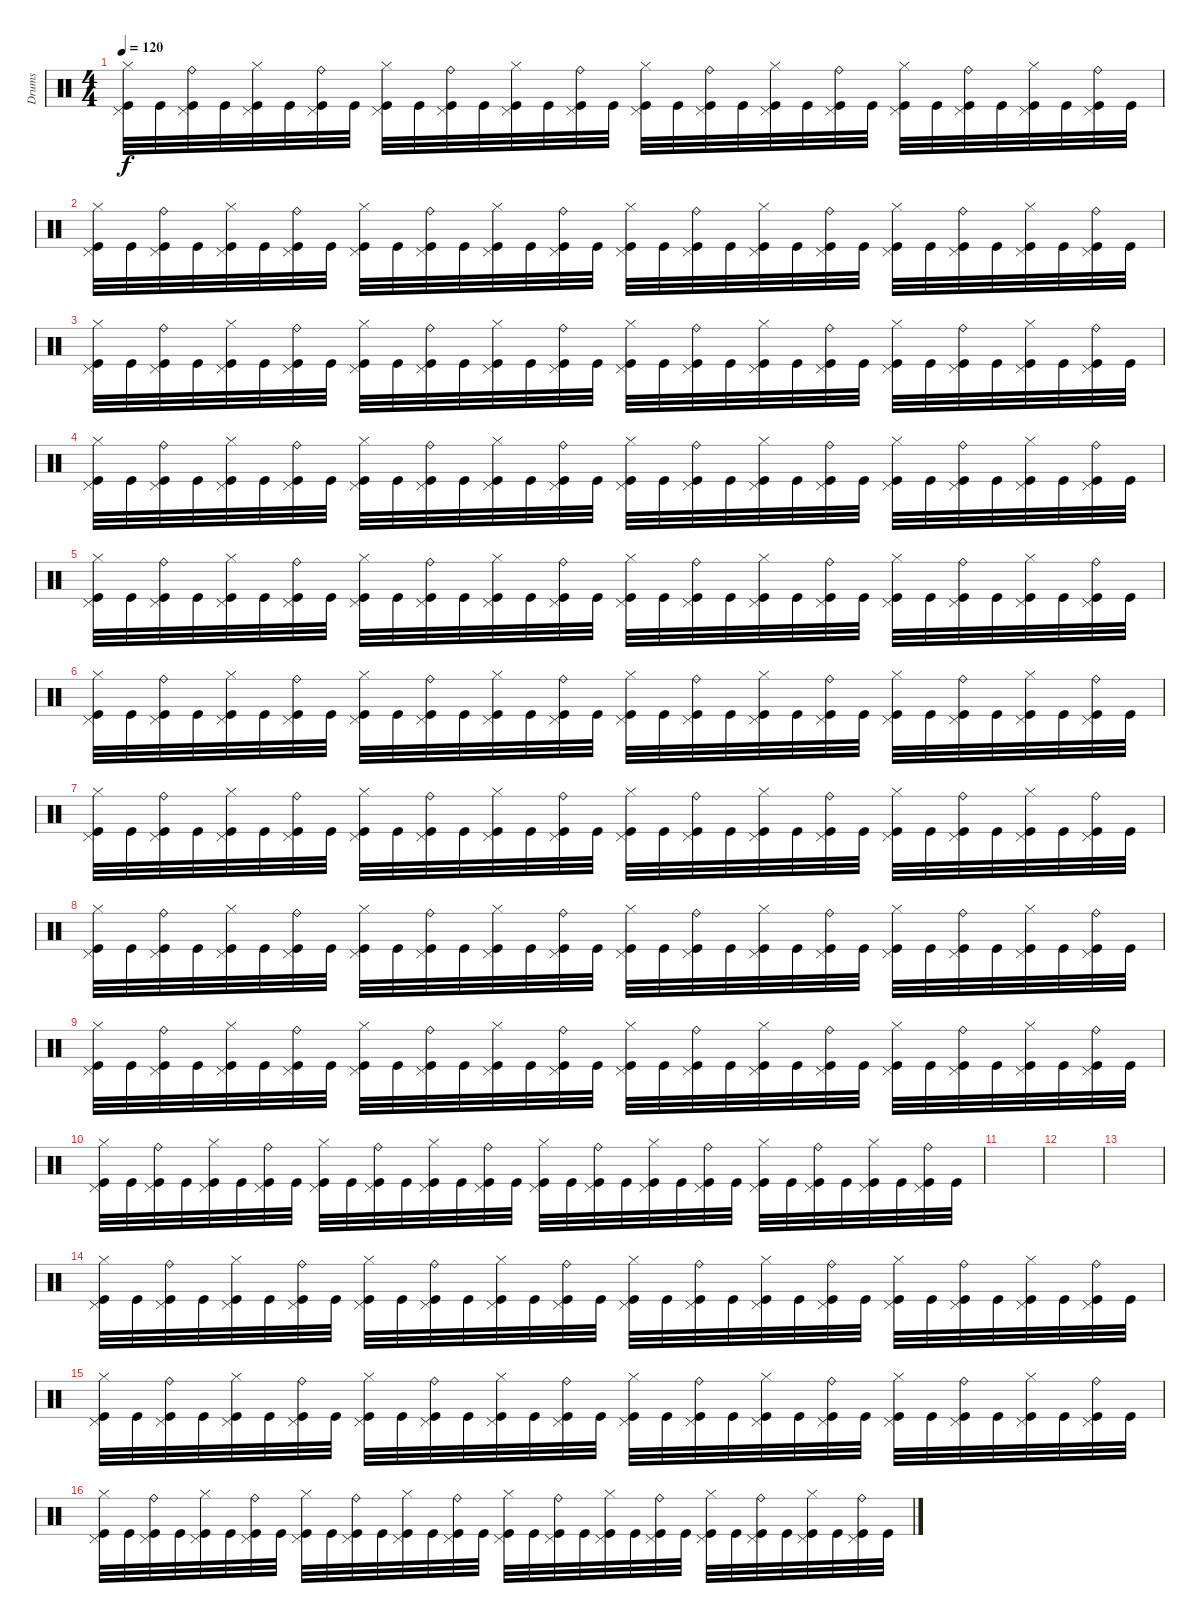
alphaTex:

\track ("Drums" "Drums") {instrument percussion}
\staff {score}
\articulation defaults
\ts (4 4)
\tempo 120
\clef neutral
\ks c
("Hi-Hat (closed)" "Pedal Hi-Hat (hit)" "Kick (hit)").32{dy f} "Kick (hit)".32 ("Ride (bell)" "Pedal Hi-Hat (hit)" "Kick (hit)").32 "Kick (hit)".32 ("Hi-Hat (closed)" "Pedal Hi-Hat (hit)" "Kick (hit)").32 "Kick (hit)".32 ("Ride (bell)" "Pedal Hi-Hat (hit)" "Kick (hit)").32 "Kick (hit)".32 ("Hi-Hat (closed)" "Pedal Hi-Hat (hit)" "Kick (hit)").32 "Kick (hit)".32 ("Ride (bell)" "Pedal Hi-Hat (hit)" "Kick (hit)").32 "Kick (hit)".32 ("Hi-Hat (closed)" "Pedal Hi-Hat (hit)" "Kick (hit)").32 "Kick (hit)".32 ("Ride (bell)" "Pedal Hi-Hat (hit)" "Kick (hit)").32 "Kick (hit)".32 ("Hi-Hat (closed)" "Pedal Hi-Hat (hit)" "Kick (hit)").32 "Kick (hit)".32 ("Ride (bell)" "Pedal Hi-Hat (hit)" "Kick (hit)").32 "Kick (hit)".32 ("Hi-Hat (closed)" "Pedal Hi-Hat (hit)" "Kick (hit)").32 "Kick (hit)".32 ("Ride (bell)" "Pedal Hi-Hat (hit)" "Kick (hit)").32 "Kick (hit)".32 ("Hi-Hat (closed)" "Pedal Hi-Hat (hit)" "Kick (hit)").32 "Kick (hit)".32 ("Ride (bell)" "Pedal Hi-Hat (hit)" "Kick (hit)").32 "Kick (hit)".32 ("Hi-Hat (closed)" "Pedal Hi-Hat (hit)" "Kick (hit)").32 "Kick (hit)".32 ("Ride (bell)" "Pedal Hi-Hat (hit)" "Kick (hit)").32 "Kick (hit)".32 |
("Hi-Hat (closed)" "Pedal Hi-Hat (hit)" "Kick (hit)").32 "Kick (hit)".32 ("Ride (bell)" "Pedal Hi-Hat (hit)" "Kick (hit)").32 "Kick (hit)".32 ("Hi-Hat (closed)" "Pedal Hi-Hat (hit)" "Kick (hit)").32 "Kick (hit)".32 ("Ride (bell)" "Pedal Hi-Hat (hit)" "Kick (hit)").32 "Kick (hit)".32 ("Hi-Hat (closed)" "Pedal Hi-Hat (hit)" "Kick (hit)").32 "Kick (hit)".32 ("Ride (bell)" "Pedal Hi-Hat (hit)" "Kick (hit)").32 "Kick (hit)".32 ("Hi-Hat (closed)" "Pedal Hi-Hat (hit)" "Kick (hit)").32 "Kick (hit)".32 ("Ride (bell)" "Pedal Hi-Hat (hit)" "Kick (hit)").32 "Kick (hit)".32 ("Hi-Hat (closed)" "Pedal Hi-Hat (hit)" "Kick (hit)").32 "Kick (hit)".32 ("Ride (bell)" "Pedal Hi-Hat (hit)" "Kick (hit)").32 "Kick (hit)".32 ("Hi-Hat (closed)" "Pedal Hi-Hat (hit)" "Kick (hit)").32 "Kick (hit)".32 ("Ride (bell)" "Pedal Hi-Hat (hit)" "Kick (hit)").32 "Kick (hit)".32 ("Hi-Hat (closed)" "Pedal Hi-Hat (hit)" "Kick (hit)").32 "Kick (hit)".32 ("Ride (bell)" "Pedal Hi-Hat (hit)" "Kick (hit)").32 "Kick (hit)".32 ("Hi-Hat (closed)" "Pedal Hi-Hat (hit)" "Kick (hit)").32 "Kick (hit)".32 ("Ride (bell)" "Pedal Hi-Hat (hit)" "Kick (hit)").32 "Kick (hit)".32 |
("Hi-Hat (closed)" "Pedal Hi-Hat (hit)" "Kick (hit)").32 "Kick (hit)".32 ("Ride (bell)" "Pedal Hi-Hat (hit)" "Kick (hit)").32 "Kick (hit)".32 ("Hi-Hat (closed)" "Pedal Hi-Hat (hit)" "Kick (hit)").32 "Kick (hit)".32 ("Ride (bell)" "Pedal Hi-Hat (hit)" "Kick (hit)").32 "Kick (hit)".32 ("Hi-Hat (closed)" "Pedal Hi-Hat (hit)" "Kick (hit)").32 "Kick (hit)".32 ("Ride (bell)" "Pedal Hi-Hat (hit)" "Kick (hit)").32 "Kick (hit)".32 ("Hi-Hat (closed)" "Pedal Hi-Hat (hit)" "Kick (hit)").32 "Kick (hit)".32 ("Ride (bell)" "Pedal Hi-Hat (hit)" "Kick (hit)").32 "Kick (hit)".32 ("Hi-Hat (closed)" "Pedal Hi-Hat (hit)" "Kick (hit)").32 "Kick (hit)".32 ("Ride (bell)" "Pedal Hi-Hat (hit)" "Kick (hit)").32 "Kick (hit)".32 ("Hi-Hat (closed)" "Pedal Hi-Hat (hit)" "Kick (hit)").32 "Kick (hit)".32 ("Ride (bell)" "Pedal Hi-Hat (hit)" "Kick (hit)").32 "Kick (hit)".32 ("Hi-Hat (closed)" "Pedal Hi-Hat (hit)" "Kick (hit)").32 "Kick (hit)".32 ("Ride (bell)" "Pedal Hi-Hat (hit)" "Kick (hit)").32 "Kick (hit)".32 ("Hi-Hat (closed)" "Pedal Hi-Hat (hit)" "Kick (hit)").32 "Kick (hit)".32 ("Ride (bell)" "Pedal Hi-Hat (hit)" "Kick (hit)").32 "Kick (hit)".32 |
("Hi-Hat (closed)" "Pedal Hi-Hat (hit)" "Kick (hit)").32 "Kick (hit)".32 ("Ride (bell)" "Pedal Hi-Hat (hit)" "Kick (hit)").32 "Kick (hit)".32 ("Hi-Hat (closed)" "Pedal Hi-Hat (hit)" "Kick (hit)").32 "Kick (hit)".32 ("Ride (bell)" "Pedal Hi-Hat (hit)" "Kick (hit)").32 "Kick (hit)".32 ("Hi-Hat (closed)" "Pedal Hi-Hat (hit)" "Kick (hit)").32 "Kick (hit)".32 ("Ride (bell)" "Pedal Hi-Hat (hit)" "Kick (hit)").32 "Kick (hit)".32 ("Hi-Hat (closed)" "Pedal Hi-Hat (hit)" "Kick (hit)").32 "Kick (hit)".32 ("Ride (bell)" "Pedal Hi-Hat (hit)" "Kick (hit)").32 "Kick (hit)".32 ("Hi-Hat (closed)" "Pedal Hi-Hat (hit)" "Kick (hit)").32 "Kick (hit)".32 ("Ride (bell)" "Pedal Hi-Hat (hit)" "Kick (hit)").32 "Kick (hit)".32 ("Hi-Hat (closed)" "Pedal Hi-Hat (hit)" "Kick (hit)").32 "Kick (hit)".32 ("Ride (bell)" "Pedal Hi-Hat (hit)" "Kick (hit)").32 "Kick (hit)".32 ("Hi-Hat (closed)" "Pedal Hi-Hat (hit)" "Kick (hit)").32 "Kick (hit)".32 ("Ride (bell)" "Pedal Hi-Hat (hit)" "Kick (hit)").32 "Kick (hit)".32 ("Hi-Hat (closed)" "Pedal Hi-Hat (hit)" "Kick (hit)").32 "Kick (hit)".32 ("Ride (bell)" "Pedal Hi-Hat (hit)" "Kick (hit)").32 "Kick (hit)".32 |
("Hi-Hat (closed)" "Pedal Hi-Hat (hit)" "Kick (hit)").32 "Kick (hit)".32 ("Ride (bell)" "Pedal Hi-Hat (hit)" "Kick (hit)").32 "Kick (hit)".32 ("Hi-Hat (closed)" "Pedal Hi-Hat (hit)" "Kick (hit)").32 "Kick (hit)".32 ("Ride (bell)" "Pedal Hi-Hat (hit)" "Kick (hit)").32 "Kick (hit)".32 ("Hi-Hat (closed)" "Pedal Hi-Hat (hit)" "Kick (hit)").32 "Kick (hit)".32 ("Ride (bell)" "Pedal Hi-Hat (hit)" "Kick (hit)").32 "Kick (hit)".32 ("Hi-Hat (closed)" "Pedal Hi-Hat (hit)" "Kick (hit)").32 "Kick (hit)".32 ("Ride (bell)" "Pedal Hi-Hat (hit)" "Kick (hit)").32 "Kick (hit)".32 ("Hi-Hat (closed)" "Pedal Hi-Hat (hit)" "Kick (hit)").32 "Kick (hit)".32 ("Ride (bell)" "Pedal Hi-Hat (hit)" "Kick (hit)").32 "Kick (hit)".32 ("Hi-Hat (closed)" "Pedal Hi-Hat (hit)" "Kick (hit)").32 "Kick (hit)".32 ("Ride (bell)" "Pedal Hi-Hat (hit)" "Kick (hit)").32 "Kick (hit)".32 ("Hi-Hat (closed)" "Pedal Hi-Hat (hit)" "Kick (hit)").32 "Kick (hit)".32 ("Ride (bell)" "Pedal Hi-Hat (hit)" "Kick (hit)").32 "Kick (hit)".32 ("Hi-Hat (closed)" "Pedal Hi-Hat (hit)" "Kick (hit)").32 "Kick (hit)".32 ("Ride (bell)" "Pedal Hi-Hat (hit)" "Kick (hit)").32 "Kick (hit)".32 |
("Hi-Hat (closed)" "Pedal Hi-Hat (hit)" "Kick (hit)").32 "Kick (hit)".32 ("Ride (bell)" "Pedal Hi-Hat (hit)" "Kick (hit)").32 "Kick (hit)".32 ("Hi-Hat (closed)" "Pedal Hi-Hat (hit)" "Kick (hit)").32 "Kick (hit)".32 ("Ride (bell)" "Pedal Hi-Hat (hit)" "Kick (hit)").32 "Kick (hit)".32 ("Hi-Hat (closed)" "Pedal Hi-Hat (hit)" "Kick (hit)").32 "Kick (hit)".32 ("Ride (bell)" "Pedal Hi-Hat (hit)" "Kick (hit)").32 "Kick (hit)".32 ("Hi-Hat (closed)" "Pedal Hi-Hat (hit)" "Kick (hit)").32 "Kick (hit)".32 ("Ride (bell)" "Pedal Hi-Hat (hit)" "Kick (hit)").32 "Kick (hit)".32 ("Hi-Hat (closed)" "Pedal Hi-Hat (hit)" "Kick (hit)").32 "Kick (hit)".32 ("Ride (bell)" "Pedal Hi-Hat (hit)" "Kick (hit)").32 "Kick (hit)".32 ("Hi-Hat (closed)" "Pedal Hi-Hat (hit)" "Kick (hit)").32 "Kick (hit)".32 ("Ride (bell)" "Pedal Hi-Hat (hit)" "Kick (hit)").32 "Kick (hit)".32 ("Hi-Hat (closed)" "Pedal Hi-Hat (hit)" "Kick (hit)").32 "Kick (hit)".32 ("Ride (bell)" "Pedal Hi-Hat (hit)" "Kick (hit)").32 "Kick (hit)".32 ("Hi-Hat (closed)" "Pedal Hi-Hat (hit)" "Kick (hit)").32 "Kick (hit)".32 ("Ride (bell)" "Pedal Hi-Hat (hit)" "Kick (hit)").32 "Kick (hit)".32 |
("Hi-Hat (closed)" "Pedal Hi-Hat (hit)" "Kick (hit)").32 "Kick (hit)".32 ("Ride (bell)" "Pedal Hi-Hat (hit)" "Kick (hit)").32 "Kick (hit)".32 ("Hi-Hat (closed)" "Pedal Hi-Hat (hit)" "Kick (hit)").32 "Kick (hit)".32 ("Ride (bell)" "Pedal Hi-Hat (hit)" "Kick (hit)").32 "Kick (hit)".32 ("Hi-Hat (closed)" "Pedal Hi-Hat (hit)" "Kick (hit)").32 "Kick (hit)".32 ("Ride (bell)" "Pedal Hi-Hat (hit)" "Kick (hit)").32 "Kick (hit)".32 ("Hi-Hat (closed)" "Pedal Hi-Hat (hit)" "Kick (hit)").32 "Kick (hit)".32 ("Ride (bell)" "Pedal Hi-Hat (hit)" "Kick (hit)").32 "Kick (hit)".32 ("Hi-Hat (closed)" "Pedal Hi-Hat (hit)" "Kick (hit)").32 "Kick (hit)".32 ("Ride (bell)" "Pedal Hi-Hat (hit)" "Kick (hit)").32 "Kick (hit)".32 ("Hi-Hat (closed)" "Pedal Hi-Hat (hit)" "Kick (hit)").32 "Kick (hit)".32 ("Ride (bell)" "Pedal Hi-Hat (hit)" "Kick (hit)").32 "Kick (hit)".32 ("Hi-Hat (closed)" "Pedal Hi-Hat (hit)" "Kick (hit)").32 "Kick (hit)".32 ("Ride (bell)" "Pedal Hi-Hat (hit)" "Kick (hit)").32 "Kick (hit)".32 ("Hi-Hat (closed)" "Pedal Hi-Hat (hit)" "Kick (hit)").32 "Kick (hit)".32 ("Ride (bell)" "Pedal Hi-Hat (hit)" "Kick (hit)").32 "Kick (hit)".32 |
("Hi-Hat (closed)" "Pedal Hi-Hat (hit)" "Kick (hit)").32 "Kick (hit)".32 ("Ride (bell)" "Pedal Hi-Hat (hit)" "Kick (hit)").32 "Kick (hit)".32 ("Hi-Hat (closed)" "Pedal Hi-Hat (hit)" "Kick (hit)").32 "Kick (hit)".32 ("Ride (bell)" "Pedal Hi-Hat (hit)" "Kick (hit)").32 "Kick (hit)".32 ("Hi-Hat (closed)" "Pedal Hi-Hat (hit)" "Kick (hit)").32 "Kick (hit)".32 ("Ride (bell)" "Pedal Hi-Hat (hit)" "Kick (hit)").32 "Kick (hit)".32 ("Hi-Hat (closed)" "Pedal Hi-Hat (hit)" "Kick (hit)").32 "Kick (hit)".32 ("Ride (bell)" "Pedal Hi-Hat (hit)" "Kick (hit)").32 "Kick (hit)".32 ("Hi-Hat (closed)" "Pedal Hi-Hat (hit)" "Kick (hit)").32 "Kick (hit)".32 ("Ride (bell)" "Pedal Hi-Hat (hit)" "Kick (hit)").32 "Kick (hit)".32 ("Hi-Hat (closed)" "Pedal Hi-Hat (hit)" "Kick (hit)").32 "Kick (hit)".32 ("Ride (bell)" "Pedal Hi-Hat (hit)" "Kick (hit)").32 "Kick (hit)".32 ("Hi-Hat (closed)" "Pedal Hi-Hat (hit)" "Kick (hit)").32 "Kick (hit)".32 ("Ride (bell)" "Pedal Hi-Hat (hit)" "Kick (hit)").32 "Kick (hit)".32 ("Hi-Hat (closed)" "Pedal Hi-Hat (hit)" "Kick (hit)").32 "Kick (hit)".32 ("Ride (bell)" "Pedal Hi-Hat (hit)" "Kick (hit)").32 "Kick (hit)".32 |
("Hi-Hat (closed)" "Pedal Hi-Hat (hit)" "Kick (hit)").32 "Kick (hit)".32 ("Ride (bell)" "Pedal Hi-Hat (hit)" "Kick (hit)").32 "Kick (hit)".32 ("Hi-Hat (closed)" "Pedal Hi-Hat (hit)" "Kick (hit)").32 "Kick (hit)".32 ("Ride (bell)" "Pedal Hi-Hat (hit)" "Kick (hit)").32 "Kick (hit)".32 ("Hi-Hat (closed)" "Pedal Hi-Hat (hit)" "Kick (hit)").32 "Kick (hit)".32 ("Ride (bell)" "Pedal Hi-Hat (hit)" "Kick (hit)").32 "Kick (hit)".32 ("Hi-Hat (closed)" "Pedal Hi-Hat (hit)" "Kick (hit)").32 "Kick (hit)".32 ("Ride (bell)" "Pedal Hi-Hat (hit)" "Kick (hit)").32 "Kick (hit)".32 ("Hi-Hat (closed)" "Pedal Hi-Hat (hit)" "Kick (hit)").32 "Kick (hit)".32 ("Ride (bell)" "Pedal Hi-Hat (hit)" "Kick (hit)").32 "Kick (hit)".32 ("Hi-Hat (closed)" "Pedal Hi-Hat (hit)" "Kick (hit)").32 "Kick (hit)".32 ("Ride (bell)" "Pedal Hi-Hat (hit)" "Kick (hit)").32 "Kick (hit)".32 ("Hi-Hat (closed)" "Pedal Hi-Hat (hit)" "Kick (hit)").32 "Kick (hit)".32 ("Ride (bell)" "Pedal Hi-Hat (hit)" "Kick (hit)").32 "Kick (hit)".32 ("Hi-Hat (closed)" "Pedal Hi-Hat (hit)" "Kick (hit)").32 "Kick (hit)".32 ("Ride (bell)" "Pedal Hi-Hat (hit)" "Kick (hit)").32 "Kick (hit)".32 |
("Hi-Hat (closed)" "Pedal Hi-Hat (hit)" "Kick (hit)").32 "Kick (hit)".32 ("Ride (bell)" "Pedal Hi-Hat (hit)" "Kick (hit)").32 "Kick (hit)".32 ("Hi-Hat (closed)" "Pedal Hi-Hat (hit)" "Kick (hit)").32 "Kick (hit)".32 ("Ride (bell)" "Pedal Hi-Hat (hit)" "Kick (hit)").32 "Kick (hit)".32 ("Hi-Hat (closed)" "Pedal Hi-Hat (hit)" "Kick (hit)").32 "Kick (hit)".32 ("Ride (bell)" "Pedal Hi-Hat (hit)" "Kick (hit)").32 "Kick (hit)".32 ("Hi-Hat (closed)" "Pedal Hi-Hat (hit)" "Kick (hit)").32 "Kick (hit)".32 ("Ride (bell)" "Pedal Hi-Hat (hit)" "Kick (hit)").32 "Kick (hit)".32 ("Hi-Hat (closed)" "Pedal Hi-Hat (hit)" "Kick (hit)").32 "Kick (hit)".32 ("Ride (bell)" "Pedal Hi-Hat (hit)" "Kick (hit)").32 "Kick (hit)".32 ("Hi-Hat (closed)" "Pedal Hi-Hat (hit)" "Kick (hit)").32 "Kick (hit)".32 ("Ride (bell)" "Pedal Hi-Hat (hit)" "Kick (hit)").32 "Kick (hit)".32 ("Hi-Hat (closed)" "Pedal Hi-Hat (hit)" "Kick (hit)").32 "Kick (hit)".32 ("Ride (bell)" "Pedal Hi-Hat (hit)" "Kick (hit)").32 "Kick (hit)".32 ("Hi-Hat (closed)" "Pedal Hi-Hat (hit)" "Kick (hit)").32 "Kick (hit)".32 ("Ride (bell)" "Pedal Hi-Hat (hit)" "Kick (hit)").32 "Kick (hit)".32 |
|
|
|
("Hi-Hat (closed)" "Pedal Hi-Hat (hit)" "Kick (hit)").32 "Kick (hit)".32 ("Ride (bell)" "Pedal Hi-Hat (hit)" "Kick (hit)").32 "Kick (hit)".32 ("Hi-Hat (closed)" "Pedal Hi-Hat (hit)" "Kick (hit)").32 "Kick (hit)".32 ("Ride (bell)" "Pedal Hi-Hat (hit)" "Kick (hit)").32 "Kick (hit)".32 ("Hi-Hat (closed)" "Pedal Hi-Hat (hit)" "Kick (hit)").32 "Kick (hit)".32 ("Ride (bell)" "Pedal Hi-Hat (hit)" "Kick (hit)").32 "Kick (hit)".32 ("Hi-Hat (closed)" "Pedal Hi-Hat (hit)" "Kick (hit)").32 "Kick (hit)".32 ("Ride (bell)" "Pedal Hi-Hat (hit)" "Kick (hit)").32 "Kick (hit)".32 ("Hi-Hat (closed)" "Pedal Hi-Hat (hit)" "Kick (hit)").32 "Kick (hit)".32 ("Ride (bell)" "Pedal Hi-Hat (hit)" "Kick (hit)").32 "Kick (hit)".32 ("Hi-Hat (closed)" "Pedal Hi-Hat (hit)" "Kick (hit)").32 "Kick (hit)".32 ("Ride (bell)" "Pedal Hi-Hat (hit)" "Kick (hit)").32 "Kick (hit)".32 ("Hi-Hat (closed)" "Pedal Hi-Hat (hit)" "Kick (hit)").32 "Kick (hit)".32 ("Ride (bell)" "Pedal Hi-Hat (hit)" "Kick (hit)").32 "Kick (hit)".32 ("Hi-Hat (closed)" "Pedal Hi-Hat (hit)" "Kick (hit)").32 "Kick (hit)".32 ("Ride (bell)" "Pedal Hi-Hat (hit)" "Kick (hit)").32 "Kick (hit)".32 |
("Hi-Hat (closed)" "Pedal Hi-Hat (hit)" "Kick (hit)").32 "Kick (hit)".32 ("Ride (bell)" "Pedal Hi-Hat (hit)" "Kick (hit)").32 "Kick (hit)".32 ("Hi-Hat (closed)" "Pedal Hi-Hat (hit)" "Kick (hit)").32 "Kick (hit)".32 ("Ride (bell)" "Pedal Hi-Hat (hit)" "Kick (hit)").32 "Kick (hit)".32 ("Hi-Hat (closed)" "Pedal Hi-Hat (hit)" "Kick (hit)").32 "Kick (hit)".32 ("Ride (bell)" "Pedal Hi-Hat (hit)" "Kick (hit)").32 "Kick (hit)".32 ("Hi-Hat (closed)" "Pedal Hi-Hat (hit)" "Kick (hit)").32 "Kick (hit)".32 ("Ride (bell)" "Pedal Hi-Hat (hit)" "Kick (hit)").32 "Kick (hit)".32 ("Hi-Hat (closed)" "Pedal Hi-Hat (hit)" "Kick (hit)").32 "Kick (hit)".32 ("Ride (bell)" "Pedal Hi-Hat (hit)" "Kick (hit)").32 "Kick (hit)".32 ("Hi-Hat (closed)" "Pedal Hi-Hat (hit)" "Kick (hit)").32 "Kick (hit)".32 ("Ride (bell)" "Pedal Hi-Hat (hit)" "Kick (hit)").32 "Kick (hit)".32 ("Hi-Hat (closed)" "Pedal Hi-Hat (hit)" "Kick (hit)").32 "Kick (hit)".32 ("Ride (bell)" "Pedal Hi-Hat (hit)" "Kick (hit)").32 "Kick (hit)".32 ("Hi-Hat (closed)" "Pedal Hi-Hat (hit)" "Kick (hit)").32 "Kick (hit)".32 ("Ride (bell)" "Pedal Hi-Hat (hit)" "Kick (hit)").32 "Kick (hit)".32 |
("Hi-Hat (closed)" "Pedal Hi-Hat (hit)" "Kick (hit)").32 "Kick (hit)".32 ("Ride (bell)" "Pedal Hi-Hat (hit)" "Kick (hit)").32 "Kick (hit)".32 ("Hi-Hat (closed)" "Pedal Hi-Hat (hit)" "Kick (hit)").32 "Kick (hit)".32 ("Ride (bell)" "Pedal Hi-Hat (hit)" "Kick (hit)").32 "Kick (hit)".32 ("Hi-Hat (closed)" "Pedal Hi-Hat (hit)" "Kick (hit)").32 "Kick (hit)".32 ("Ride (bell)" "Pedal Hi-Hat (hit)" "Kick (hit)").32 "Kick (hit)".32 ("Hi-Hat (closed)" "Pedal Hi-Hat (hit)" "Kick (hit)").32 "Kick (hit)".32 ("Ride (bell)" "Pedal Hi-Hat (hit)" "Kick (hit)").32 "Kick (hit)".32 ("Hi-Hat (closed)" "Pedal Hi-Hat (hit)" "Kick (hit)").32 "Kick (hit)".32 ("Ride (bell)" "Pedal Hi-Hat (hit)" "Kick (hit)").32 "Kick (hit)".32 ("Hi-Hat (closed)" "Pedal Hi-Hat (hit)" "Kick (hit)").32 "Kick (hit)".32 ("Ride (bell)" "Pedal Hi-Hat (hit)" "Kick (hit)").32 "Kick (hit)".32 ("Hi-Hat (closed)" "Pedal Hi-Hat (hit)" "Kick (hit)").32 "Kick (hit)".32 ("Ride (bell)" "Pedal Hi-Hat (hit)" "Kick (hit)").32 "Kick (hit)".32 ("Hi-Hat (closed)" "Pedal Hi-Hat (hit)" "Kick (hit)").32 "Kick (hit)".32 ("Ride (bell)" "Pedal Hi-Hat (hit)" "Kick (hit)").32 "Kick (hit)".32
